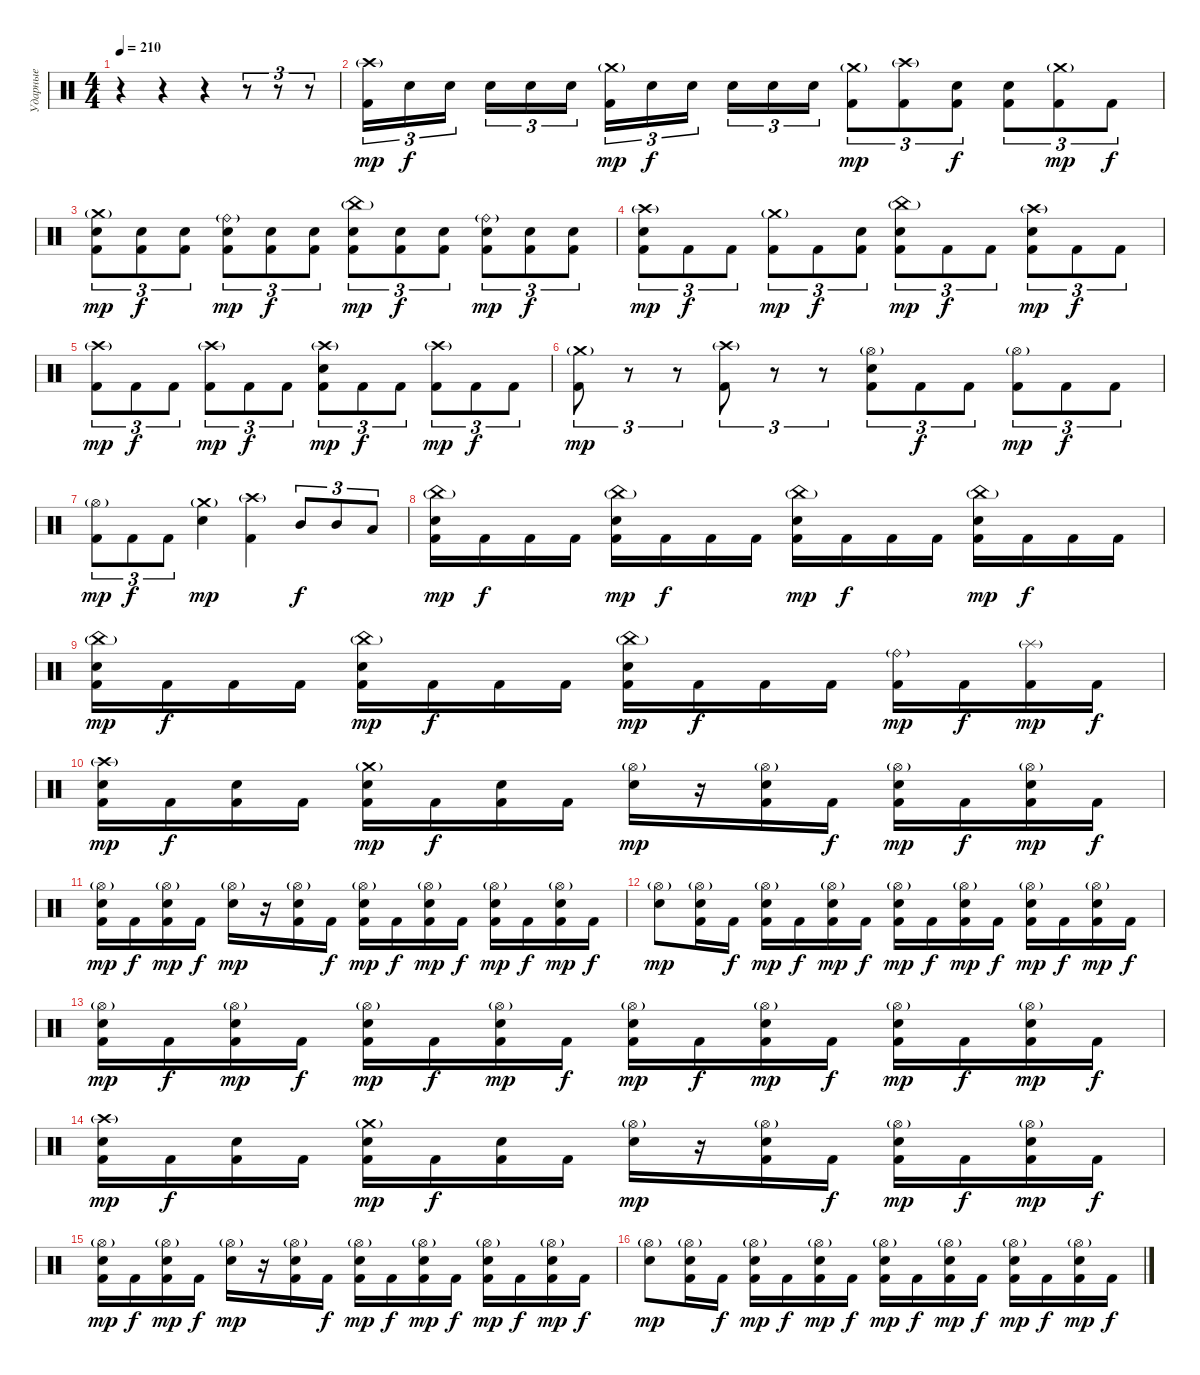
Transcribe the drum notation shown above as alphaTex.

\track ("Ударные" "Ударные") {instrument percussion}
\staff {score}
\articulation defaults
\ts (4 4)
\tempo 210
\clef neutral
\ks c
r.4{dy mp} r.4 r.4 r.8{tu (3 2)} r.8{tu (3 2)} r.8{tu (3 2)} |
("Crash high (hit)"{g} "Kick (hit) 2").16{tu (3 2)} "Electric Snare (hit)".16{tu (3 2) dy f} "Electric Snare (hit)".16{tu (3 2)} "Electric Snare (hit)".16{tu (3 2)} "Electric Snare (hit)".16{tu (3 2)} "Electric Snare (hit)".16{tu (3 2)} ("Crash medium (hit)"{g} "Kick (hit) 2").16{tu (3 2) dy mp} "Electric Snare (hit)".16{tu (3 2) dy f} "Electric Snare (hit)".16{tu (3 2)} "Electric Snare (hit)".16{tu (3 2)} "Electric Snare (hit)".16{tu (3 2)} "Electric Snare (hit)".16{tu (3 2)} ("Crash medium (hit)"{g} "Kick (hit) 2").8{tu (3 2) dy mp} ("Crash high (hit)"{g} "Kick (hit) 2").8{tu (3 2)} ("Electric Snare (hit)" "Kick (hit) 2").8{tu (3 2) dy f} ("Electric Snare (hit)" "Kick (hit) 2").8{tu (3 2)} ("Crash medium (hit)"{g} "Kick (hit) 2").8{tu (3 2) dy mp} "Kick (hit) 2".8{tu (3 2) dy f} |
("Crash medium (hit)"{g} "Electric Snare (hit)" "Kick (hit) 2").8{tu (3 2) dy mp} ("Electric Snare (hit)" "Kick (hit) 2").8{tu (3 2) dy f} ("Electric Snare (hit)" "Kick (hit) 2").8{tu (3 2)} ("Ride (bell)"{g} "Electric Snare (hit)" "Kick (hit) 2").8{tu (3 2) dy mp} ("Electric Snare (hit)" "Kick (hit) 2").8{tu (3 2) dy f} ("Electric Snare (hit)" "Kick (hit) 2").8{tu (3 2)} ("China (hit)"{g} "Electric Snare (hit)" "Kick (hit) 2").8{tu (3 2) dy mp} ("Electric Snare (hit)" "Kick (hit) 2").8{tu (3 2) dy f} ("Electric Snare (hit)" "Kick (hit) 2").8{tu (3 2)} ("Ride (bell)"{g} "Electric Snare (hit)" "Kick (hit) 2").8{tu (3 2) dy mp} ("Electric Snare (hit)" "Kick (hit) 2").8{tu (3 2) dy f} ("Electric Snare (hit)" "Kick (hit) 2").8{tu (3 2)} |
("Crash high (hit)"{g} "Electric Snare (hit)" "Kick (hit) 2").8{tu (3 2) dy mp} "Kick (hit) 2".8{tu (3 2) dy f} "Kick (hit) 2".8{tu (3 2)} ("Crash medium (hit)"{g} "Kick (hit) 2").8{tu (3 2) dy mp} "Kick (hit) 2".8{tu (3 2) dy f} ("Electric Snare (hit)" "Kick (hit) 2").8{tu (3 2)} ("China (hit)"{g} "Electric Snare (hit)" "Kick (hit) 2").8{tu (3 2) dy mp} "Kick (hit) 2".8{tu (3 2) dy f} "Kick (hit) 2".8{tu (3 2)} ("Crash high (hit)"{g} "Electric Snare (hit)" "Kick (hit) 2").8{tu (3 2) dy mp} "Kick (hit) 2".8{tu (3 2) dy f} "Kick (hit) 2".8{tu (3 2)} |
("Crash high (hit)"{g} "Kick (hit) 2").8{tu (3 2) dy mp} "Kick (hit) 2".8{tu (3 2) dy f} "Kick (hit) 2".8{tu (3 2)} ("Crash high (hit)"{g} "Kick (hit) 2").8{tu (3 2) dy mp} "Kick (hit) 2".8{tu (3 2) dy f} "Kick (hit) 2".8{tu (3 2)} ("Crash high (hit)"{g} "Electric Snare (hit)" "Kick (hit) 2").8{tu (3 2) dy mp} "Kick (hit) 2".8{tu (3 2) dy f} "Kick (hit) 2".8{tu (3 2)} ("Crash high (hit)"{g} "Kick (hit) 2").8{tu (3 2) dy mp} "Kick (hit) 2".8{tu (3 2) dy f} "Kick (hit) 2".8{tu (3 2)} |
("Crash medium (hit)"{g} "Kick (hit) 2").8{tu (3 2) dy mp} r.8{tu (3 2)} r.8{tu (3 2)} ("Crash high (hit)"{g} "Kick (hit) 2").8{tu (3 2)} r.8{tu (3 2)} r.8{tu (3 2)} ("Hi-Hat (open)"{g} "Electric Snare (hit)" "Kick (hit) 2").8{tu (3 2)} "Kick (hit) 2".8{tu (3 2) dy f} "Kick (hit) 2".8{tu (3 2)} ("Hi-Hat (open)"{g} "Kick (hit) 2").8{tu (3 2) dy mp} "Kick (hit) 2".8{tu (3 2) dy f} "Kick (hit) 2".8{tu (3 2)} |
("Hi-Hat (open)"{g} "Kick (hit) 2").8{tu (3 2) dy mp} "Kick (hit) 2".8{tu (3 2) dy f} "Kick (hit) 2".8{tu (3 2)} ("Crash medium (hit)"{g} "Electric Snare (hit)").4{dy mp} ("Crash high (hit)"{g} "Kick (hit) 2").4 "Mid Tom (hit)".8{tu (3 2) dy f} "Mid Tom (hit)".8{tu (3 2)} "Low Tom (hit)".8{tu (3 2)} |
("China (hit)"{g} "Electric Snare (hit)" "Kick (hit) 2").16{dy mp} "Kick (hit) 2".16{dy f} "Kick (hit) 2".16 "Kick (hit) 2".16 ("China (hit)"{g} "Electric Snare (hit)" "Kick (hit) 2").16{dy mp} "Kick (hit) 2".16{dy f} "Kick (hit) 2".16 "Kick (hit) 2".16 ("China (hit)"{g} "Electric Snare (hit)" "Kick (hit) 2").16{dy mp} "Kick (hit) 2".16{dy f} "Kick (hit) 2".16 "Kick (hit) 2".16 ("China (hit)"{g} "Electric Snare (hit)" "Kick (hit) 2").16{dy mp} "Kick (hit) 2".16{dy f} "Kick (hit) 2".16 "Kick (hit) 2".16 |
("China (hit)"{g} "Electric Snare (hit)" "Kick (hit) 2").16{dy mp} "Kick (hit) 2".16{dy f} "Kick (hit) 2".16 "Kick (hit) 2".16 ("China (hit)"{g} "Electric Snare (hit)" "Kick (hit) 2").16{dy mp} "Kick (hit) 2".16{dy f} "Kick (hit) 2".16 "Kick (hit) 2".16 ("China (hit)"{g} "Electric Snare (hit)" "Kick (hit) 2").16{dy mp} "Kick (hit) 2".16{dy f} "Kick (hit) 2".16 "Kick (hit) 2".16 ("Ride (bell)"{g} "Kick (hit) 2").16{dy mp} "Kick (hit) 2".16{dy f} ("Splash (hit)"{g} "Kick (hit) 2").16{dy mp} "Kick (hit) 2".16{dy f} |
("Crash high (hit)"{g} "Electric Snare (hit)" "Kick (hit) 2").16{dy mp} "Kick (hit) 2".16{dy f} ("Electric Snare (hit)" "Kick (hit) 2").16 "Kick (hit) 2".16 ("Crash medium (hit)"{g} "Electric Snare (hit)" "Kick (hit) 2").16{dy mp} "Kick (hit) 2".16{dy f} ("Electric Snare (hit)" "Kick (hit) 2").16 "Kick (hit) 2".16 ("Hi-Hat (open)"{g} "Electric Snare (hit)").16{dy mp} r.16 ("Hi-Hat (open)"{g} "Electric Snare (hit)" "Kick (hit) 2").16 "Kick (hit) 2".16{dy f} ("Hi-Hat (open)"{g} "Electric Snare (hit)" "Kick (hit) 2").16{dy mp} "Kick (hit) 2".16{dy f} ("Hi-Hat (open)"{g} "Electric Snare (hit)" "Kick (hit) 2").16{dy mp} "Kick (hit) 2".16{dy f} |
("Hi-Hat (open)"{g} "Electric Snare (hit)" "Kick (hit) 2").16{dy mp} "Kick (hit) 2".16{dy f} ("Hi-Hat (open)"{g} "Electric Snare (hit)" "Kick (hit) 2").16{dy mp} "Kick (hit) 2".16{dy f} ("Hi-Hat (open)"{g} "Electric Snare (hit)").16{dy mp} r.16 ("Hi-Hat (open)"{g} "Electric Snare (hit)" "Kick (hit) 2").16 "Kick (hit) 2".16{dy f} ("Hi-Hat (open)"{g} "Electric Snare (hit)" "Kick (hit) 2").16{dy mp} "Kick (hit) 2".16{dy f} ("Hi-Hat (open)"{g} "Electric Snare (hit)" "Kick (hit) 2").16{dy mp} "Kick (hit) 2".16{dy f} ("Hi-Hat (open)"{g} "Electric Snare (hit)" "Kick (hit) 2").16{dy mp} "Kick (hit) 2".16{dy f} ("Hi-Hat (open)"{g} "Electric Snare (hit)" "Kick (hit) 2").16{dy mp} "Kick (hit) 2".16{dy f} |
("Hi-Hat (open)"{g} "Electric Snare (hit)").8{dy mp} ("Hi-Hat (open)"{g} "Electric Snare (hit)" "Kick (hit) 2").16 "Kick (hit) 2".16{dy f} ("Hi-Hat (open)"{g} "Electric Snare (hit)" "Kick (hit) 2").16{dy mp} "Kick (hit) 2".16{dy f} ("Hi-Hat (open)"{g} "Electric Snare (hit)" "Kick (hit) 2").16{dy mp} "Kick (hit) 2".16{dy f} ("Hi-Hat (open)"{g} "Electric Snare (hit)" "Kick (hit) 2").16{dy mp} "Kick (hit) 2".16{dy f} ("Hi-Hat (open)"{g} "Electric Snare (hit)" "Kick (hit) 2").16{dy mp} "Kick (hit) 2".16{dy f} ("Hi-Hat (open)"{g} "Electric Snare (hit)" "Kick (hit) 2").16{dy mp} "Kick (hit) 2".16{dy f} ("Hi-Hat (open)"{g} "Electric Snare (hit)" "Kick (hit) 2").16{dy mp} "Kick (hit) 2".16{dy f} |
("Hi-Hat (open)"{g} "Electric Snare (hit)" "Kick (hit) 2").16{dy mp} "Kick (hit) 2".16{dy f} ("Hi-Hat (open)"{g} "Electric Snare (hit)" "Kick (hit) 2").16{dy mp} "Kick (hit) 2".16{dy f} ("Hi-Hat (open)"{g} "Electric Snare (hit)" "Kick (hit) 2").16{dy mp} "Kick (hit) 2".16{dy f} ("Hi-Hat (open)"{g} "Electric Snare (hit)" "Kick (hit) 2").16{dy mp} "Kick (hit) 2".16{dy f} ("Hi-Hat (open)"{g} "Electric Snare (hit)" "Kick (hit) 2").16{dy mp} "Kick (hit) 2".16{dy f} ("Hi-Hat (open)"{g} "Electric Snare (hit)" "Kick (hit) 2").16{dy mp} "Kick (hit) 2".16{dy f} ("Hi-Hat (open)"{g} "Electric Snare (hit)" "Kick (hit) 2").16{dy mp} "Kick (hit) 2".16{dy f} ("Hi-Hat (open)"{g} "Electric Snare (hit)" "Kick (hit) 2").16{dy mp} "Kick (hit) 2".16{dy f} |
("Crash high (hit)"{g} "Electric Snare (hit)" "Kick (hit) 2").16{dy mp} "Kick (hit) 2".16{dy f} ("Electric Snare (hit)" "Kick (hit) 2").16 "Kick (hit) 2".16 ("Crash medium (hit)"{g} "Electric Snare (hit)" "Kick (hit) 2").16{dy mp} "Kick (hit) 2".16{dy f} ("Electric Snare (hit)" "Kick (hit) 2").16 "Kick (hit) 2".16 ("Hi-Hat (open)"{g} "Electric Snare (hit)").16{dy mp} r.16 ("Hi-Hat (open)"{g} "Electric Snare (hit)" "Kick (hit) 2").16 "Kick (hit) 2".16{dy f} ("Hi-Hat (open)"{g} "Electric Snare (hit)" "Kick (hit) 2").16{dy mp} "Kick (hit) 2".16{dy f} ("Hi-Hat (open)"{g} "Electric Snare (hit)" "Kick (hit) 2").16{dy mp} "Kick (hit) 2".16{dy f} |
("Hi-Hat (open)"{g} "Electric Snare (hit)" "Kick (hit) 2").16{dy mp} "Kick (hit) 2".16{dy f} ("Hi-Hat (open)"{g} "Electric Snare (hit)" "Kick (hit) 2").16{dy mp} "Kick (hit) 2".16{dy f} ("Hi-Hat (open)"{g} "Electric Snare (hit)").16{dy mp} r.16 ("Hi-Hat (open)"{g} "Electric Snare (hit)" "Kick (hit) 2").16 "Kick (hit) 2".16{dy f} ("Hi-Hat (open)"{g} "Electric Snare (hit)" "Kick (hit) 2").16{dy mp} "Kick (hit) 2".16{dy f} ("Hi-Hat (open)"{g} "Electric Snare (hit)" "Kick (hit) 2").16{dy mp} "Kick (hit) 2".16{dy f} ("Hi-Hat (open)"{g} "Electric Snare (hit)" "Kick (hit) 2").16{dy mp} "Kick (hit) 2".16{dy f} ("Hi-Hat (open)"{g} "Electric Snare (hit)" "Kick (hit) 2").16{dy mp} "Kick (hit) 2".16{dy f} |
("Hi-Hat (open)"{g} "Electric Snare (hit)").8{dy mp} ("Hi-Hat (open)"{g} "Electric Snare (hit)" "Kick (hit) 2").16 "Kick (hit) 2".16{dy f} ("Hi-Hat (open)"{g} "Electric Snare (hit)" "Kick (hit) 2").16{dy mp} "Kick (hit) 2".16{dy f} ("Hi-Hat (open)"{g} "Electric Snare (hit)" "Kick (hit) 2").16{dy mp} "Kick (hit) 2".16{dy f} ("Hi-Hat (open)"{g} "Electric Snare (hit)" "Kick (hit) 2").16{dy mp} "Kick (hit) 2".16{dy f} ("Hi-Hat (open)"{g} "Electric Snare (hit)" "Kick (hit) 2").16{dy mp} "Kick (hit) 2".16{dy f} ("Hi-Hat (open)"{g} "Electric Snare (hit)" "Kick (hit) 2").16{dy mp} "Kick (hit) 2".16{dy f} ("Hi-Hat (open)"{g} "Electric Snare (hit)" "Kick (hit) 2").16{dy mp} "Kick (hit) 2".16{dy f}
